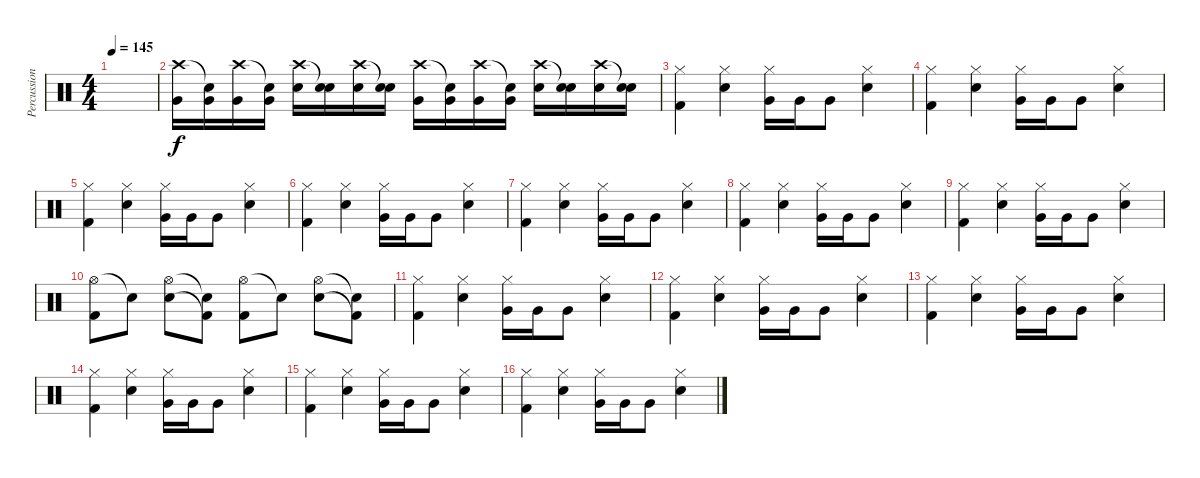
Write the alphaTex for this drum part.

\track ("Percussion" "Percussion") {instrument percussion}
\staff {score}
\articulation defaults
\ts (4 4)
\tempo 145
\clef neutral
\ks c
|
("Crash high (hit)" "Very Low Tom (hit)").16 ("Snare (hit)"{t} "Very Low Tom (hit)").16 ("Crash high (hit)" "Very Low Tom (hit)").16 ("Snare (hit)"{t} "Very Low Tom (hit)").16 ("Crash high (hit)" "Electric Snare (hit)").16 ("Snare (hit)"{t} "Electric Snare (hit)").16 ("Crash high (hit)" "Electric Snare (hit)").16 ("Snare (hit)"{t} "Electric Snare (hit)").16 ("Crash high (hit)" "Very Low Tom (hit)").16 ("Snare (hit)"{t} "Very Low Tom (hit)").16 ("Crash high (hit)" "Very Low Tom (hit)").16 ("Snare (hit)"{t} "Very Low Tom (hit)").16 ("Crash high (hit)" "Electric Snare (hit)").16 ("Snare (hit)"{t} "Electric Snare (hit)").16 ("Crash high (hit)" "Electric Snare (hit)").16 ("Snare (hit)"{t} "Electric Snare (hit)").16 |
("Hi-Hat (closed)" "Kick (hit) 2").4{dy f} ("Hi-Hat (closed)" "Electric Snare (hit)").4 ("Hi-Hat (closed)" "Very Low Tom (hit)").16 "Very Low Tom (hit)".16 "Very Low Tom (hit)".8 ("Hi-Hat (closed)" "Electric Snare (hit)").4 |
("Hi-Hat (closed)" "Kick (hit) 2").4 ("Hi-Hat (closed)" "Electric Snare (hit)").4 ("Hi-Hat (closed)" "Very Low Tom (hit)").16 "Very Low Tom (hit)".16 "Very Low Tom (hit)".8 ("Hi-Hat (closed)" "Electric Snare (hit)").4 |
("Hi-Hat (closed)" "Kick (hit) 2").4 ("Hi-Hat (closed)" "Electric Snare (hit)").4 ("Hi-Hat (closed)" "Very Low Tom (hit)").16 "Very Low Tom (hit)".16 "Very Low Tom (hit)".8 ("Hi-Hat (closed)" "Electric Snare (hit)").4 |
("Hi-Hat (closed)" "Kick (hit) 2").4 ("Hi-Hat (closed)" "Electric Snare (hit)").4 ("Hi-Hat (closed)" "Very Low Tom (hit)").16 "Very Low Tom (hit)".16 "Very Low Tom (hit)".8 ("Hi-Hat (closed)" "Electric Snare (hit)").4 |
("Hi-Hat (closed)" "Kick (hit) 2").4 ("Hi-Hat (closed)" "Electric Snare (hit)").4 ("Hi-Hat (closed)" "Very Low Tom (hit)").16 "Very Low Tom (hit)".16 "Very Low Tom (hit)".8 ("Hi-Hat (closed)" "Electric Snare (hit)").4 |
("Hi-Hat (closed)" "Kick (hit) 2").4 ("Hi-Hat (closed)" "Electric Snare (hit)").4 ("Hi-Hat (closed)" "Very Low Tom (hit)").16 "Very Low Tom (hit)".16 "Very Low Tom (hit)".8 ("Hi-Hat (closed)" "Electric Snare (hit)").4 |
("Hi-Hat (closed)" "Kick (hit) 2").4 ("Hi-Hat (closed)" "Electric Snare (hit)").4 ("Hi-Hat (closed)" "Very Low Tom (hit)").16 "Very Low Tom (hit)".16 "Very Low Tom (hit)".8 ("Hi-Hat (closed)" "Electric Snare (hit)").4 |
("Hi-Hat (open)" "Kick (hit) 2").8 "Snare (hit)"{t}.8 ("Hi-Hat (open)" "Electric Snare (hit)").8 ("Snare (hit)"{t} "Kick (hit) 2"{t}).8 ("Hi-Hat (open)" "Kick (hit) 2").8 "Snare (hit)"{t}.8 ("Hi-Hat (open)" "Electric Snare (hit)").8 ("Snare (hit)"{t} "Kick (hit) 2"{t}).8 |
("Hi-Hat (closed)" "Kick (hit) 2").4 ("Hi-Hat (closed)" "Electric Snare (hit)").4 ("Hi-Hat (closed)" "Very Low Tom (hit)").16 "Very Low Tom (hit)".16 "Very Low Tom (hit)".8 ("Hi-Hat (closed)" "Electric Snare (hit)").4 |
("Hi-Hat (closed)" "Kick (hit) 2").4 ("Hi-Hat (closed)" "Electric Snare (hit)").4 ("Hi-Hat (closed)" "Very Low Tom (hit)").16 "Very Low Tom (hit)".16 "Very Low Tom (hit)".8 ("Hi-Hat (closed)" "Electric Snare (hit)").4 |
("Hi-Hat (closed)" "Kick (hit) 2").4 ("Hi-Hat (closed)" "Electric Snare (hit)").4 ("Hi-Hat (closed)" "Very Low Tom (hit)").16 "Very Low Tom (hit)".16 "Very Low Tom (hit)".8 ("Hi-Hat (closed)" "Electric Snare (hit)").4 |
("Hi-Hat (closed)" "Kick (hit) 2").4 ("Hi-Hat (closed)" "Electric Snare (hit)").4 ("Hi-Hat (closed)" "Very Low Tom (hit)").16 "Very Low Tom (hit)".16 "Very Low Tom (hit)".8 ("Hi-Hat (closed)" "Electric Snare (hit)").4 |
("Hi-Hat (closed)" "Kick (hit) 2").4 ("Hi-Hat (closed)" "Electric Snare (hit)").4 ("Hi-Hat (closed)" "Very Low Tom (hit)").16 "Very Low Tom (hit)".16 "Very Low Tom (hit)".8 ("Hi-Hat (closed)" "Electric Snare (hit)").4 |
("Hi-Hat (closed)" "Kick (hit) 2").4 ("Hi-Hat (closed)" "Electric Snare (hit)").4 ("Hi-Hat (closed)" "Very Low Tom (hit)").16 "Very Low Tom (hit)".16 "Very Low Tom (hit)".8 ("Hi-Hat (closed)" "Electric Snare (hit)").4
